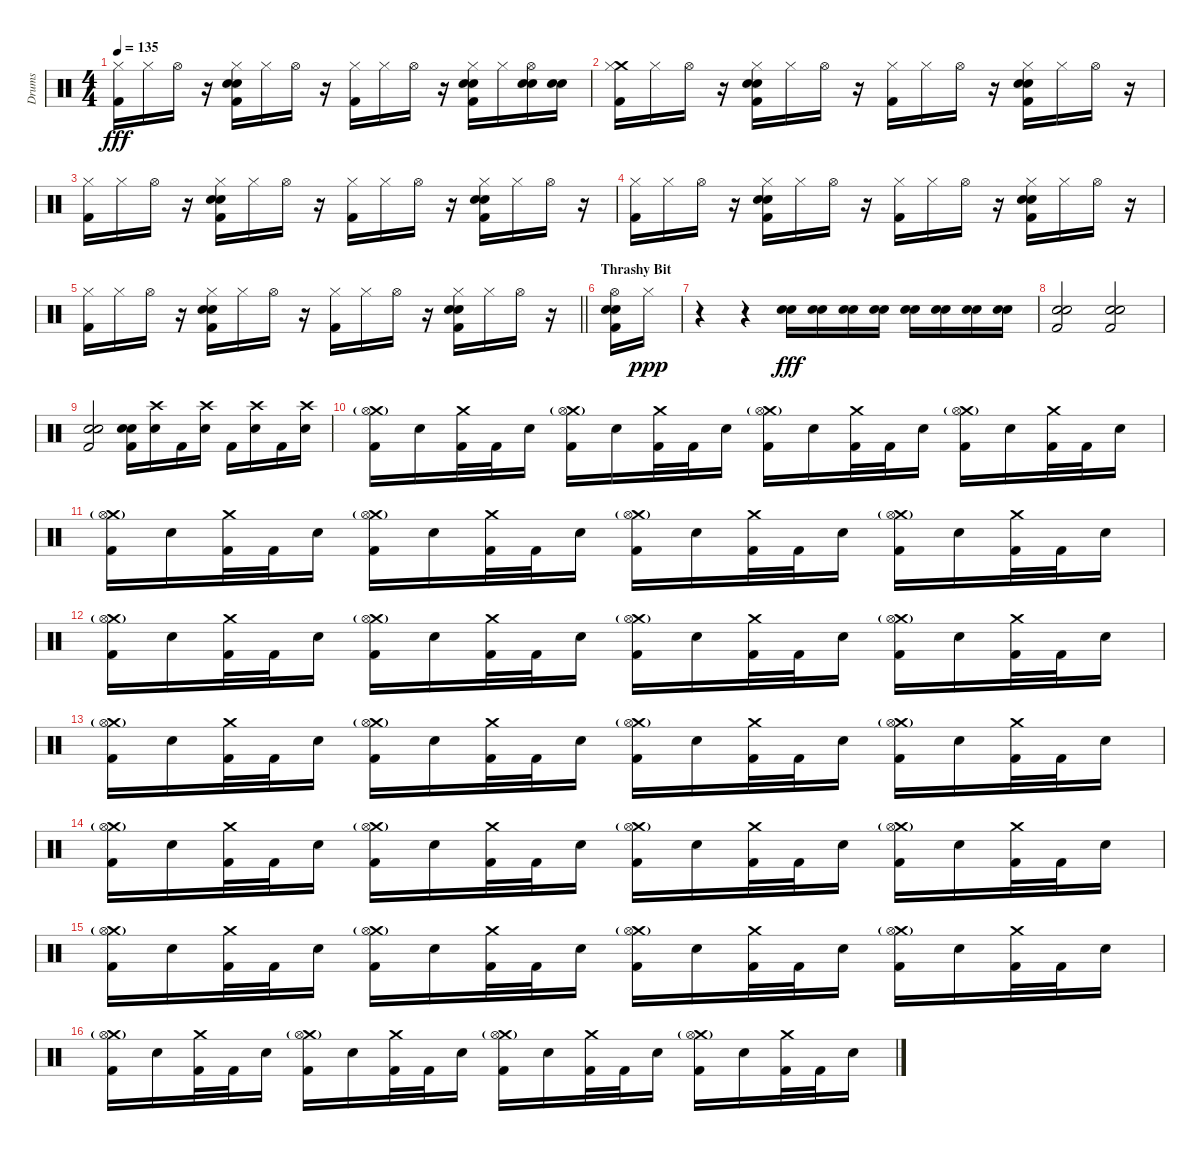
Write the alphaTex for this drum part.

\track ("Drums" "Drums") {instrument percussion}
\staff {score}
\articulation defaults
\ts (4 4)
\tempo 135
\clef neutral
\ks c
("Hi-Hat (closed)" "Kick (hit) 2").16{dy fff} "Hi-Hat (closed)".16 "Hi-Hat (open)".16 r.16 ("Hi-Hat (closed)" "Snare (hit) 2" "Electric Snare (hit)" "Kick (hit) 2").16 "Hi-Hat (closed)".16 "Hi-Hat (open)".16 r.16 ("Hi-Hat (closed)" "Kick (hit) 2").16 "Hi-Hat (closed)".16 "Hi-Hat (open)".16 r.16 ("Hi-Hat (closed)" "Snare (hit) 2" "Electric Snare (hit)" "Kick (hit) 2").16 "Hi-Hat (closed)".16 ("Hi-Hat (open)" "Snare (hit) 2" "Electric Snare (hit)").16 ("Snare (hit) 2" "Electric Snare (hit)").16 |
("Crash medium (hit)" "Hi-Hat (closed)" "Kick (hit) 2").16 "Hi-Hat (closed)".16 "Hi-Hat (open)".16 r.16 ("Hi-Hat (closed)" "Snare (hit) 2" "Electric Snare (hit)" "Kick (hit) 2").16 "Hi-Hat (closed)".16 "Hi-Hat (open)".16 r.16 ("Hi-Hat (closed)" "Kick (hit) 2").16 "Hi-Hat (closed)".16 "Hi-Hat (open)".16 r.16 ("Hi-Hat (closed)" "Snare (hit) 2" "Electric Snare (hit)" "Kick (hit) 2").16 "Hi-Hat (closed)".16 "Hi-Hat (open)".16 r.16 |
("Hi-Hat (closed)" "Kick (hit) 2").16 "Hi-Hat (closed)".16 "Hi-Hat (open)".16 r.16 ("Hi-Hat (closed)" "Snare (hit) 2" "Electric Snare (hit)" "Kick (hit) 2").16 "Hi-Hat (closed)".16 "Hi-Hat (open)".16 r.16 ("Hi-Hat (closed)" "Kick (hit) 2").16 "Hi-Hat (closed)".16 "Hi-Hat (open)".16 r.16 ("Hi-Hat (closed)" "Snare (hit) 2" "Electric Snare (hit)" "Kick (hit) 2").16 "Hi-Hat (closed)".16 "Hi-Hat (open)".16 r.16 |
("Hi-Hat (closed)" "Kick (hit) 2").16 "Hi-Hat (closed)".16 "Hi-Hat (open)".16 r.16 ("Hi-Hat (closed)" "Snare (hit) 2" "Electric Snare (hit)" "Kick (hit) 2").16 "Hi-Hat (closed)".16 "Hi-Hat (open)".16 r.16 ("Hi-Hat (closed)" "Kick (hit) 2").16 "Hi-Hat (closed)".16 "Hi-Hat (open)".16 r.16 ("Hi-Hat (closed)" "Snare (hit) 2" "Electric Snare (hit)" "Kick (hit) 2").16 "Hi-Hat (closed)".16 "Hi-Hat (open)".16 r.16 |
\barLineRight lightlight
("Hi-Hat (closed)" "Kick (hit) 2").16 "Hi-Hat (closed)".16 "Hi-Hat (open)".16 r.16 ("Hi-Hat (closed)" "Snare (hit) 2" "Electric Snare (hit)" "Kick (hit) 2").16 "Hi-Hat (closed)".16 "Hi-Hat (open)".16 r.16 ("Hi-Hat (closed)" "Kick (hit) 2").16 "Hi-Hat (closed)".16 "Hi-Hat (open)".16 r.16 ("Hi-Hat (closed)" "Snare (hit) 2" "Electric Snare (hit)" "Kick (hit) 2").16 "Hi-Hat (closed)".16 "Hi-Hat (open)".16 r.16 |
\section ("" "Thrashy Bit")
("Hi-Hat (open)" "Electric Snare (hit)" "Snare (hit) 2" "Kick (hit) 2").16 "Hi-Hat (closed)".16{dy ppp} |
r.4 r.4 ("Electric Snare (hit)" "Snare (hit) 2").16{dy fff} ("Electric Snare (hit)" "Snare (hit) 2").16 ("Electric Snare (hit)" "Snare (hit) 2").16 ("Electric Snare (hit)" "Snare (hit) 2").16 ("Electric Snare (hit)" "Snare (hit) 2").16 ("Electric Snare (hit)" "Snare (hit) 2").16 ("Electric Snare (hit)" "Snare (hit) 2").16 ("Electric Snare (hit)" "Snare (hit) 2").16 |
("Snare (hit) 2" "Electric Snare (hit)" "Kick (hit) 2").2 ("Snare (hit) 2" "Electric Snare (hit)" "Kick (hit) 2").2 |
("Snare (hit) 2" "Electric Snare (hit)" "Kick (hit) 2").2 ("Snare (hit) 2" "Electric Snare (hit)" "Kick (hit) 2").16 ("Crash high (hit)" "Electric Snare (hit)").16 "Kick (hit) 2".16 ("Crash high (hit)" "Electric Snare (hit)").16 "Kick (hit) 2".16 ("Crash high (hit)" "Electric Snare (hit)").16 "Kick (hit) 2".16 ("Crash high (hit)" "Electric Snare (hit)").16 |
("Crash medium (hit)" "Hi-Hat (open)"{g} "Kick (hit) 2").16 "Electric Snare (hit)".16 ("Crash medium (hit)" "Kick (hit) 2").32 "Kick (hit) 2".32 "Electric Snare (hit)".16 ("Crash medium (hit)" "Hi-Hat (open)"{g} "Kick (hit) 2").16 "Electric Snare (hit)".16 ("Crash medium (hit)" "Kick (hit) 2").32 "Kick (hit) 2".32 "Electric Snare (hit)".16 ("Crash medium (hit)" "Hi-Hat (open)"{g} "Kick (hit) 2").16 "Electric Snare (hit)".16 ("Crash medium (hit)" "Kick (hit) 2").32 "Kick (hit) 2".32 "Electric Snare (hit)".16 ("Crash medium (hit)" "Hi-Hat (open)"{g} "Kick (hit) 2").16 "Electric Snare (hit)".16 ("Crash medium (hit)" "Kick (hit) 2").32 "Kick (hit) 2".32 "Electric Snare (hit)".16 |
("Crash medium (hit)" "Hi-Hat (open)"{g} "Kick (hit) 2").16 "Electric Snare (hit)".16 ("Crash medium (hit)" "Kick (hit) 2").32 "Kick (hit) 2".32 "Electric Snare (hit)".16 ("Crash medium (hit)" "Hi-Hat (open)"{g} "Kick (hit) 2").16 "Electric Snare (hit)".16 ("Crash medium (hit)" "Kick (hit) 2").32 "Kick (hit) 2".32 "Electric Snare (hit)".16 ("Crash medium (hit)" "Hi-Hat (open)"{g} "Kick (hit) 2").16 "Electric Snare (hit)".16 ("Crash medium (hit)" "Kick (hit) 2").32 "Kick (hit) 2".32 "Electric Snare (hit)".16 ("Crash medium (hit)" "Hi-Hat (open)"{g} "Kick (hit) 2").16 "Electric Snare (hit)".16 ("Crash medium (hit)" "Kick (hit) 2").32 "Kick (hit) 2".32 "Electric Snare (hit)".16 |
("Crash medium (hit)" "Hi-Hat (open)"{g} "Kick (hit) 2").16 "Electric Snare (hit)".16 ("Crash medium (hit)" "Kick (hit) 2").32 "Kick (hit) 2".32 "Electric Snare (hit)".16 ("Crash medium (hit)" "Hi-Hat (open)"{g} "Kick (hit) 2").16 "Electric Snare (hit)".16 ("Crash medium (hit)" "Kick (hit) 2").32 "Kick (hit) 2".32 "Electric Snare (hit)".16 ("Crash medium (hit)" "Hi-Hat (open)"{g} "Kick (hit) 2").16 "Electric Snare (hit)".16 ("Crash medium (hit)" "Kick (hit) 2").32 "Kick (hit) 2".32 "Electric Snare (hit)".16 ("Crash medium (hit)" "Hi-Hat (open)"{g} "Kick (hit) 2").16 "Electric Snare (hit)".16 ("Crash medium (hit)" "Kick (hit) 2").32 "Kick (hit) 2".32 "Electric Snare (hit)".16 |
("Crash medium (hit)" "Hi-Hat (open)"{g} "Kick (hit) 2").16 "Electric Snare (hit)".16 ("Crash medium (hit)" "Kick (hit) 2").32 "Kick (hit) 2".32 "Electric Snare (hit)".16 ("Crash medium (hit)" "Hi-Hat (open)"{g} "Kick (hit) 2").16 "Electric Snare (hit)".16 ("Crash medium (hit)" "Kick (hit) 2").32 "Kick (hit) 2".32 "Electric Snare (hit)".16 ("Crash medium (hit)" "Hi-Hat (open)"{g} "Kick (hit) 2").16 "Electric Snare (hit)".16 ("Crash medium (hit)" "Kick (hit) 2").32 "Kick (hit) 2".32 "Electric Snare (hit)".16 ("Crash medium (hit)" "Hi-Hat (open)"{g} "Kick (hit) 2").16 "Electric Snare (hit)".16 ("Crash medium (hit)" "Kick (hit) 2").32 "Kick (hit) 2".32 "Electric Snare (hit)".16 |
("Crash medium (hit)" "Hi-Hat (open)"{g} "Kick (hit) 2").16 "Electric Snare (hit)".16 ("Crash medium (hit)" "Kick (hit) 2").32 "Kick (hit) 2".32 "Electric Snare (hit)".16 ("Crash medium (hit)" "Hi-Hat (open)"{g} "Kick (hit) 2").16 "Electric Snare (hit)".16 ("Crash medium (hit)" "Kick (hit) 2").32 "Kick (hit) 2".32 "Electric Snare (hit)".16 ("Crash medium (hit)" "Hi-Hat (open)"{g} "Kick (hit) 2").16 "Electric Snare (hit)".16 ("Crash medium (hit)" "Kick (hit) 2").32 "Kick (hit) 2".32 "Electric Snare (hit)".16 ("Crash medium (hit)" "Hi-Hat (open)"{g} "Kick (hit) 2").16 "Electric Snare (hit)".16 ("Crash medium (hit)" "Kick (hit) 2").32 "Kick (hit) 2".32 "Electric Snare (hit)".16 |
("Crash medium (hit)" "Hi-Hat (open)"{g} "Kick (hit) 2").16 "Electric Snare (hit)".16 ("Crash medium (hit)" "Kick (hit) 2").32 "Kick (hit) 2".32 "Electric Snare (hit)".16 ("Crash medium (hit)" "Hi-Hat (open)"{g} "Kick (hit) 2").16 "Electric Snare (hit)".16 ("Crash medium (hit)" "Kick (hit) 2").32 "Kick (hit) 2".32 "Electric Snare (hit)".16 ("Crash medium (hit)" "Hi-Hat (open)"{g} "Kick (hit) 2").16 "Electric Snare (hit)".16 ("Crash medium (hit)" "Kick (hit) 2").32 "Kick (hit) 2".32 "Electric Snare (hit)".16 ("Crash medium (hit)" "Hi-Hat (open)"{g} "Kick (hit) 2").16 "Electric Snare (hit)".16 ("Crash medium (hit)" "Kick (hit) 2").32 "Kick (hit) 2".32 "Electric Snare (hit)".16 |
("Crash medium (hit)" "Hi-Hat (open)"{g} "Kick (hit) 2").16 "Electric Snare (hit)".16 ("Crash medium (hit)" "Kick (hit) 2").32 "Kick (hit) 2".32 "Electric Snare (hit)".16 ("Crash medium (hit)" "Hi-Hat (open)"{g} "Kick (hit) 2").16 "Electric Snare (hit)".16 ("Crash medium (hit)" "Kick (hit) 2").32 "Kick (hit) 2".32 "Electric Snare (hit)".16 ("Crash medium (hit)" "Hi-Hat (open)"{g} "Kick (hit) 2").16 "Electric Snare (hit)".16 ("Crash medium (hit)" "Kick (hit) 2").32 "Kick (hit) 2".32 "Electric Snare (hit)".16 ("Crash medium (hit)" "Hi-Hat (open)"{g} "Kick (hit) 2").16 "Electric Snare (hit)".16 ("Crash medium (hit)" "Kick (hit) 2").32 "Kick (hit) 2".32 "Electric Snare (hit)".16
